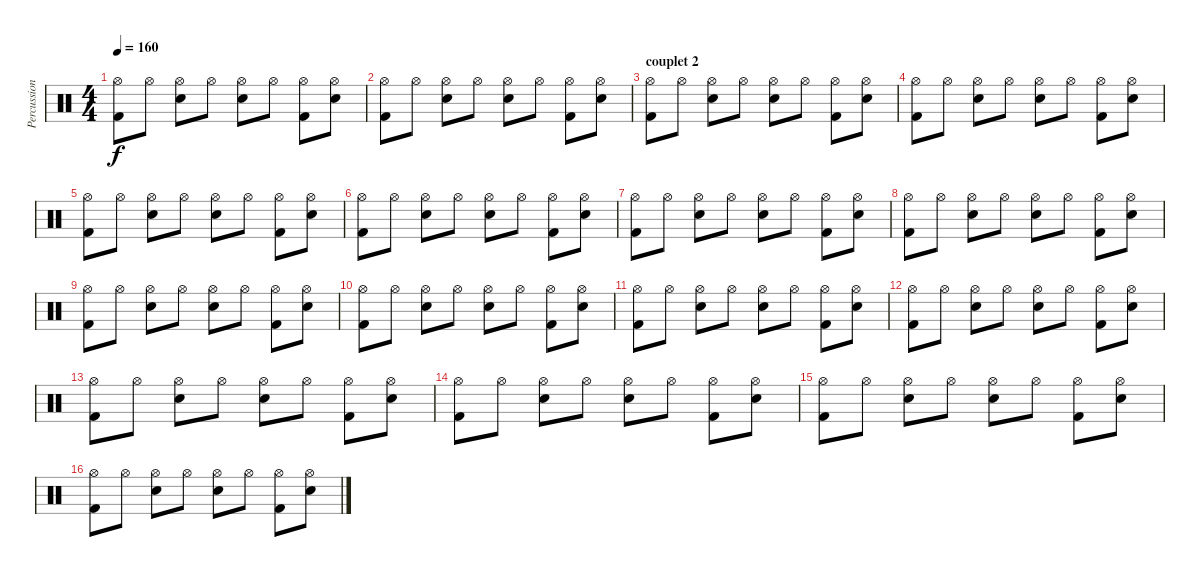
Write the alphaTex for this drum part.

\track ("Percussions" "Percussion") {instrument percussion}
\staff {score}
\articulation defaults
\ts (4 4)
\tempo 160
\clef neutral
\ks c
("Hi-Hat (open)" "Kick (hit) 2").8{dy f} "Hi-Hat (open)".8 ("Hi-Hat (open)" "Electric Snare (hit)").8 "Hi-Hat (open)".8 ("Hi-Hat (open)" "Electric Snare (hit)").8 "Hi-Hat (open)".8 ("Hi-Hat (open)" "Kick (hit) 2").8 ("Hi-Hat (open)" "Electric Snare (hit)").8 |
("Hi-Hat (open)" "Kick (hit) 2").8 "Hi-Hat (open)".8 ("Hi-Hat (open)" "Electric Snare (hit)").8 "Hi-Hat (open)".8 ("Hi-Hat (open)" "Electric Snare (hit)").8 "Hi-Hat (open)".8 ("Hi-Hat (open)" "Kick (hit) 2").8 ("Hi-Hat (open)" "Electric Snare (hit)").8 |
\section ("" "couplet 2")
("Hi-Hat (open)" "Kick (hit) 2").8 "Hi-Hat (open)".8 ("Hi-Hat (open)" "Electric Snare (hit)").8 "Hi-Hat (open)".8 ("Hi-Hat (open)" "Electric Snare (hit)").8 "Hi-Hat (open)".8 ("Hi-Hat (open)" "Kick (hit) 2").8 ("Hi-Hat (open)" "Electric Snare (hit)").8 |
("Hi-Hat (open)" "Kick (hit) 2").8 "Hi-Hat (open)".8 ("Hi-Hat (open)" "Electric Snare (hit)").8 "Hi-Hat (open)".8 ("Hi-Hat (open)" "Electric Snare (hit)").8 "Hi-Hat (open)".8 ("Hi-Hat (open)" "Kick (hit) 2").8 ("Hi-Hat (open)" "Electric Snare (hit)").8 |
("Hi-Hat (open)" "Kick (hit) 2").8 "Hi-Hat (open)".8 ("Hi-Hat (open)" "Electric Snare (hit)").8 "Hi-Hat (open)".8 ("Hi-Hat (open)" "Electric Snare (hit)").8 "Hi-Hat (open)".8 ("Hi-Hat (open)" "Kick (hit) 2").8 ("Hi-Hat (open)" "Electric Snare (hit)").8 |
("Hi-Hat (open)" "Kick (hit) 2").8 "Hi-Hat (open)".8 ("Hi-Hat (open)" "Electric Snare (hit)").8 "Hi-Hat (open)".8 ("Hi-Hat (open)" "Electric Snare (hit)").8 "Hi-Hat (open)".8 ("Hi-Hat (open)" "Kick (hit) 2").8 ("Hi-Hat (open)" "Electric Snare (hit)").8 |
("Hi-Hat (open)" "Kick (hit) 2").8 "Hi-Hat (open)".8 ("Hi-Hat (open)" "Electric Snare (hit)").8 "Hi-Hat (open)".8 ("Hi-Hat (open)" "Electric Snare (hit)").8 "Hi-Hat (open)".8 ("Hi-Hat (open)" "Kick (hit) 2").8 ("Hi-Hat (open)" "Electric Snare (hit)").8 |
("Hi-Hat (open)" "Kick (hit) 2").8 "Hi-Hat (open)".8 ("Hi-Hat (open)" "Electric Snare (hit)").8 "Hi-Hat (open)".8 ("Hi-Hat (open)" "Electric Snare (hit)").8 "Hi-Hat (open)".8 ("Hi-Hat (open)" "Kick (hit) 2").8 ("Hi-Hat (open)" "Electric Snare (hit)").8 |
("Hi-Hat (open)" "Kick (hit) 2").8 "Hi-Hat (open)".8 ("Hi-Hat (open)" "Electric Snare (hit)").8 "Hi-Hat (open)".8 ("Hi-Hat (open)" "Electric Snare (hit)").8 "Hi-Hat (open)".8 ("Hi-Hat (open)" "Kick (hit) 2").8 ("Hi-Hat (open)" "Electric Snare (hit)").8 |
("Hi-Hat (open)" "Kick (hit) 2").8 "Hi-Hat (open)".8 ("Hi-Hat (open)" "Electric Snare (hit)").8 "Hi-Hat (open)".8 ("Hi-Hat (open)" "Electric Snare (hit)").8 "Hi-Hat (open)".8 ("Hi-Hat (open)" "Kick (hit) 2").8 ("Hi-Hat (open)" "Electric Snare (hit)").8 |
("Hi-Hat (open)" "Kick (hit) 2").8 "Hi-Hat (open)".8 ("Hi-Hat (open)" "Electric Snare (hit)").8 "Hi-Hat (open)".8 ("Hi-Hat (open)" "Electric Snare (hit)").8 "Hi-Hat (open)".8 ("Hi-Hat (open)" "Kick (hit) 2").8 ("Hi-Hat (open)" "Electric Snare (hit)").8 |
("Hi-Hat (open)" "Kick (hit) 2").8 "Hi-Hat (open)".8 ("Hi-Hat (open)" "Electric Snare (hit)").8 "Hi-Hat (open)".8 ("Hi-Hat (open)" "Electric Snare (hit)").8 "Hi-Hat (open)".8 ("Hi-Hat (open)" "Kick (hit) 2").8 ("Hi-Hat (open)" "Electric Snare (hit)").8 |
("Hi-Hat (open)" "Kick (hit) 2").8 "Hi-Hat (open)".8 ("Hi-Hat (open)" "Electric Snare (hit)").8 "Hi-Hat (open)".8 ("Hi-Hat (open)" "Electric Snare (hit)").8 "Hi-Hat (open)".8 ("Hi-Hat (open)" "Kick (hit) 2").8 ("Hi-Hat (open)" "Electric Snare (hit)").8 |
("Hi-Hat (open)" "Kick (hit) 2").8 "Hi-Hat (open)".8 ("Hi-Hat (open)" "Electric Snare (hit)").8 "Hi-Hat (open)".8 ("Hi-Hat (open)" "Electric Snare (hit)").8 "Hi-Hat (open)".8 ("Hi-Hat (open)" "Kick (hit) 2").8 ("Hi-Hat (open)" "Electric Snare (hit)").8 |
("Hi-Hat (open)" "Kick (hit) 2").8 "Hi-Hat (open)".8 ("Hi-Hat (open)" "Electric Snare (hit)").8 "Hi-Hat (open)".8 ("Hi-Hat (open)" "Electric Snare (hit)").8 "Hi-Hat (open)".8 ("Hi-Hat (open)" "Kick (hit) 2").8 ("Hi-Hat (open)" "Electric Snare (hit)").8 |
("Hi-Hat (open)" "Kick (hit) 2").8 "Hi-Hat (open)".8 ("Hi-Hat (open)" "Electric Snare (hit)").8 "Hi-Hat (open)".8 ("Hi-Hat (open)" "Electric Snare (hit)").8 "Hi-Hat (open)".8 ("Hi-Hat (open)" "Kick (hit) 2").8 ("Hi-Hat (open)" "Electric Snare (hit)").8
